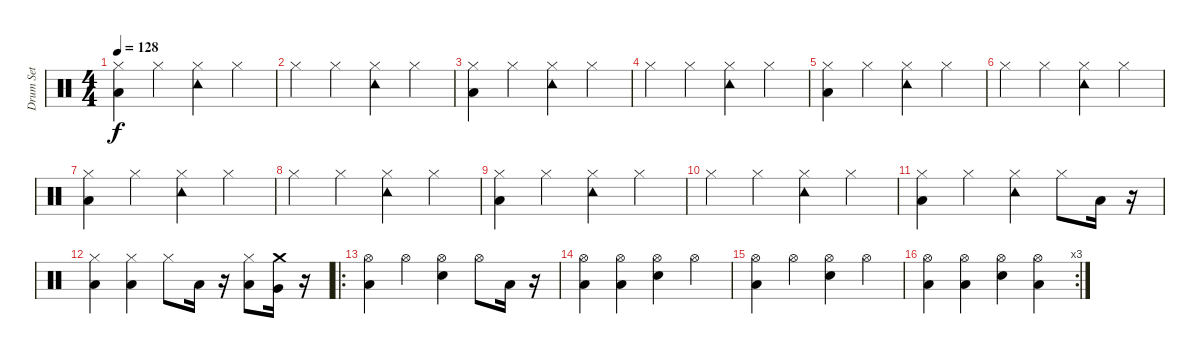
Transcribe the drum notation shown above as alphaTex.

\track ("Drum Set" "Drum Set") {instrument percussion}
\staff {score}
\articulation defaults
\ts (4 4)
\tempo 128
\clef neutral
\ks c
("Hi-Hat (closed)" "Low Floor Tom (hit)").4{dy f} "Hi-Hat (closed)".4 ("Hi-Hat (closed)" "Tambourine (hit)").4 "Hi-Hat (closed)".4 |
"Hi-Hat (closed)".4 "Hi-Hat (closed)".4 ("Hi-Hat (closed)" "Tambourine (hit)").4 "Hi-Hat (closed)".4 |
("Hi-Hat (closed)" "Low Floor Tom (hit)").4 "Hi-Hat (closed)".4 ("Hi-Hat (closed)" "Tambourine (hit)").4 "Hi-Hat (closed)".4 |
"Hi-Hat (closed)".4 "Hi-Hat (closed)".4 ("Hi-Hat (closed)" "Tambourine (hit)").4 "Hi-Hat (closed)".4 |
("Hi-Hat (closed)" "Low Floor Tom (hit)").4 "Hi-Hat (closed)".4 ("Hi-Hat (closed)" "Tambourine (hit)").4 "Hi-Hat (closed)".4 |
"Hi-Hat (closed)".4 "Hi-Hat (closed)".4 ("Hi-Hat (closed)" "Tambourine (hit)").4 "Hi-Hat (closed)".4 |
("Hi-Hat (closed)" "Low Floor Tom (hit)").4 "Hi-Hat (closed)".4 ("Hi-Hat (closed)" "Tambourine (hit)").4 "Hi-Hat (closed)".4 |
"Hi-Hat (closed)".4 "Hi-Hat (closed)".4 ("Hi-Hat (closed)" "Tambourine (hit)").4 "Hi-Hat (closed)".4 |
("Hi-Hat (closed)" "Low Floor Tom (hit)").4 "Hi-Hat (closed)".4 ("Hi-Hat (closed)" "Tambourine (hit)").4 "Hi-Hat (closed)".4 |
"Hi-Hat (closed)".4 "Hi-Hat (closed)".4 ("Hi-Hat (closed)" "Tambourine (hit)").4 "Hi-Hat (closed)".4 |
("Hi-Hat (closed)" "Low Floor Tom (hit)").4 "Hi-Hat (closed)".4 ("Hi-Hat (closed)" "Tambourine (hit)").4 "Hi-Hat (closed)".8 "Low Floor Tom (hit)".16 r.16 |
("Hi-Hat (closed)" "Low Floor Tom (hit)").4 ("Hi-Hat (closed)" "Low Floor Tom (hit)").4 "Hi-Hat (closed)".8 "Low Floor Tom (hit)".16 r.16 ("Hi-Hat (closed)" "Low Tom (hit)").8 ("Crash medium (hit)" "Very Low Tom (hit)").16 r.16 |
\ro
("Hi-Hat (open)" "Low Floor Tom (hit)").4 "Hi-Hat (open)".4 ("Hi-Hat (open)" "Snare (hit) 2").4 "Hi-Hat (open)".8 "Low Floor Tom (hit)".16 r.16 |
("Hi-Hat (open)" "Low Floor Tom (hit)").4 ("Hi-Hat (open)" "Low Floor Tom (hit)").4 ("Hi-Hat (open)" "Snare (hit) 2").4 "Hi-Hat (open)".4 |
("Hi-Hat (open)" "Low Floor Tom (hit)").4 "Hi-Hat (open)".4 ("Hi-Hat (open)" "Snare (hit) 2").4 "Hi-Hat (open)".4 |
\rc 3
("Hi-Hat (open)" "Low Floor Tom (hit)").4 ("Hi-Hat (open)" "Low Floor Tom (hit)").4 ("Hi-Hat (open)" "Snare (hit) 2").4 ("Hi-Hat (open)" "Low Floor Tom (hit)").4
